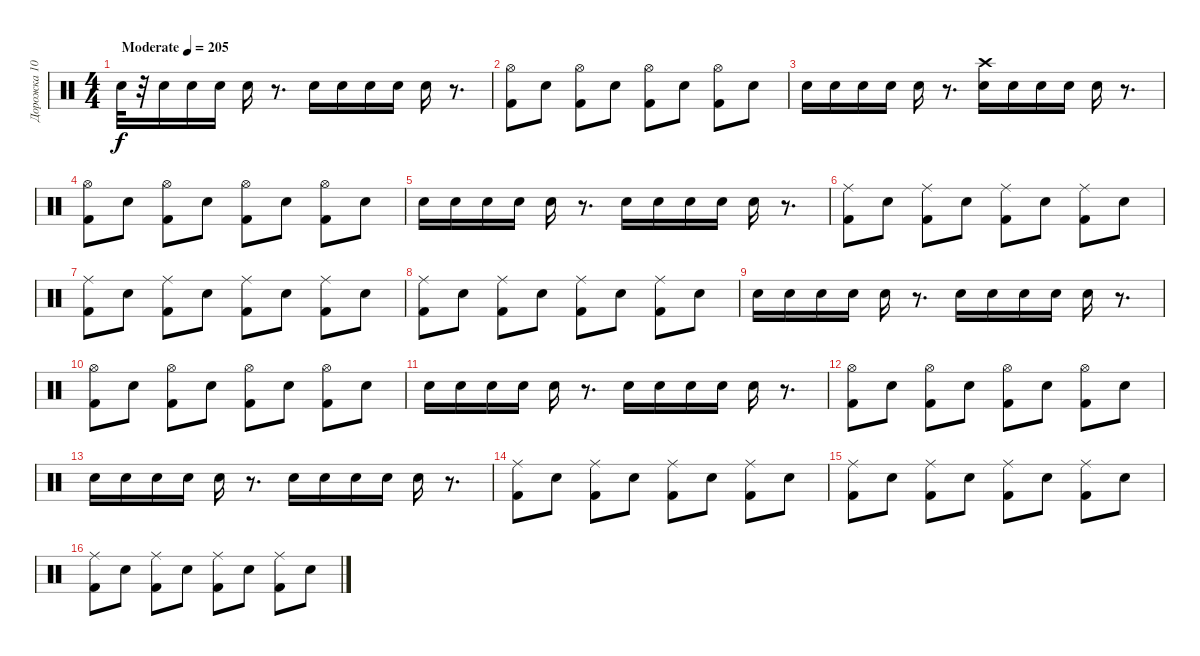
\track ("Дорожка 10" "Дорожка 10") {instrument percussion}
\staff {score}
\articulation defaults
\ts (4 4)
\tempo (205 "Moderate")
\clef neutral
\ks c "Snare (hit) 2".32{dy f}
r.32 "Snare (hit) 2".16 "Snare (hit) 2".16 "Snare (hit) 2".16 "Snare (hit) 2".16 r.8{d} "Snare (hit) 2".16 "Snare (hit) 2".16 "Snare (hit) 2".16 "Snare (hit) 2".16 "Snare (hit) 2".16 r.8{d} |
("Hi-Hat (open)" "Kick (hit) 2").8 "Snare (hit) 2".8 ("Hi-Hat (open)" "Kick (hit) 2").8 "Snare (hit) 2".8 ("Hi-Hat (open)" "Kick (hit) 2").8 "Snare (hit) 2".8 ("Hi-Hat (open)" "Kick (hit) 2").8 "Snare (hit) 2".8 |
"Snare (hit) 2".16 "Snare (hit) 2".16 "Snare (hit) 2".16 "Snare (hit) 2".16 "Snare (hit) 2".16 r.8{d} ("Crash high (hit)" "Snare (hit) 2").16 "Snare (hit) 2".16 "Snare (hit) 2".16 "Snare (hit) 2".16 "Snare (hit) 2".16 r.8{d} |
("Hi-Hat (open)" "Kick (hit) 2").8 "Snare (hit) 2".8 ("Hi-Hat (open)" "Kick (hit) 2").8 "Snare (hit) 2".8 ("Hi-Hat (open)" "Kick (hit) 2").8 "Snare (hit) 2".8 ("Hi-Hat (open)" "Kick (hit) 2").8 "Snare (hit) 2".8 |
"Snare (hit) 2".16 "Snare (hit) 2".16 "Snare (hit) 2".16 "Snare (hit) 2".16 "Snare (hit) 2".16 r.8{d} "Snare (hit) 2".16 "Snare (hit) 2".16 "Snare (hit) 2".16 "Snare (hit) 2".16 "Snare (hit) 2".16 r.8{d} |
("Ride (middle)" "Kick (hit) 2").8 "Snare (hit) 2".8 ("Ride (middle)" "Kick (hit) 2").8 "Snare (hit) 2".8 ("Ride (middle)" "Kick (hit) 2").8 "Snare (hit) 2".8 ("Ride (middle)" "Kick (hit) 2").8 "Snare (hit) 2".8 |
("Ride (middle)" "Kick (hit) 2").8 "Snare (hit) 2".8 ("Ride (middle)" "Kick (hit) 2").8 "Snare (hit) 2".8 ("Ride (middle)" "Kick (hit) 2").8 "Snare (hit) 2".8 ("Ride (middle)" "Kick (hit) 2").8 "Snare (hit) 2".8 |
("Ride (middle)" "Kick (hit) 2").8 "Snare (hit) 2".8 ("Ride (middle)" "Kick (hit) 2").8 "Snare (hit) 2".8 ("Ride (middle)" "Kick (hit) 2").8 "Snare (hit) 2".8 ("Ride (middle)" "Kick (hit) 2").8 "Snare (hit) 2".8 |
"Snare (hit) 2".16 "Snare (hit) 2".16 "Snare (hit) 2".16 "Snare (hit) 2".16 "Snare (hit) 2".16 r.8{d} "Snare (hit) 2".16 "Snare (hit) 2".16 "Snare (hit) 2".16 "Snare (hit) 2".16 "Snare (hit) 2".16 r.8{d} |
("Hi-Hat (open)" "Kick (hit) 2").8 "Snare (hit) 2".8 ("Hi-Hat (open)" "Kick (hit) 2").8 "Snare (hit) 2".8 ("Hi-Hat (open)" "Kick (hit) 2").8 "Snare (hit) 2".8 ("Hi-Hat (open)" "Kick (hit) 2").8 "Snare (hit) 2".8 |
"Snare (hit) 2".16 "Snare (hit) 2".16 "Snare (hit) 2".16 "Snare (hit) 2".16 "Snare (hit) 2".16 r.8{d} "Snare (hit) 2".16 "Snare (hit) 2".16 "Snare (hit) 2".16 "Snare (hit) 2".16 "Snare (hit) 2".16 r.8{d} |
("Hi-Hat (open)" "Kick (hit) 2").8 "Snare (hit) 2".8 ("Hi-Hat (open)" "Kick (hit) 2").8 "Snare (hit) 2".8 ("Hi-Hat (open)" "Kick (hit) 2").8 "Snare (hit) 2".8 ("Hi-Hat (open)" "Kick (hit) 2").8 "Snare (hit) 2".8 |
"Snare (hit) 2".16 "Snare (hit) 2".16 "Snare (hit) 2".16 "Snare (hit) 2".16 "Snare (hit) 2".16 r.8{d} "Snare (hit) 2".16 "Snare (hit) 2".16 "Snare (hit) 2".16 "Snare (hit) 2".16 "Snare (hit) 2".16 r.8{d} |
("Ride (middle)" "Kick (hit) 2").8 "Snare (hit) 2".8 ("Ride (middle)" "Kick (hit) 2").8 "Snare (hit) 2".8 ("Ride (middle)" "Kick (hit) 2").8 "Snare (hit) 2".8 ("Ride (middle)" "Kick (hit) 2").8 "Snare (hit) 2".8 |
("Ride (middle)" "Kick (hit) 2").8 "Snare (hit) 2".8 ("Ride (middle)" "Kick (hit) 2").8 "Snare (hit) 2".8 ("Ride (middle)" "Kick (hit) 2").8 "Snare (hit) 2".8 ("Ride (middle)" "Kick (hit) 2").8 "Snare (hit) 2".8 |
("Ride (middle)" "Kick (hit) 2").8 "Snare (hit) 2".8 ("Ride (middle)" "Kick (hit) 2").8 "Snare (hit) 2".8 ("Ride (middle)" "Kick (hit) 2").8 "Snare (hit) 2".8 ("Ride (middle)" "Kick (hit) 2").8 "Snare (hit) 2".8
